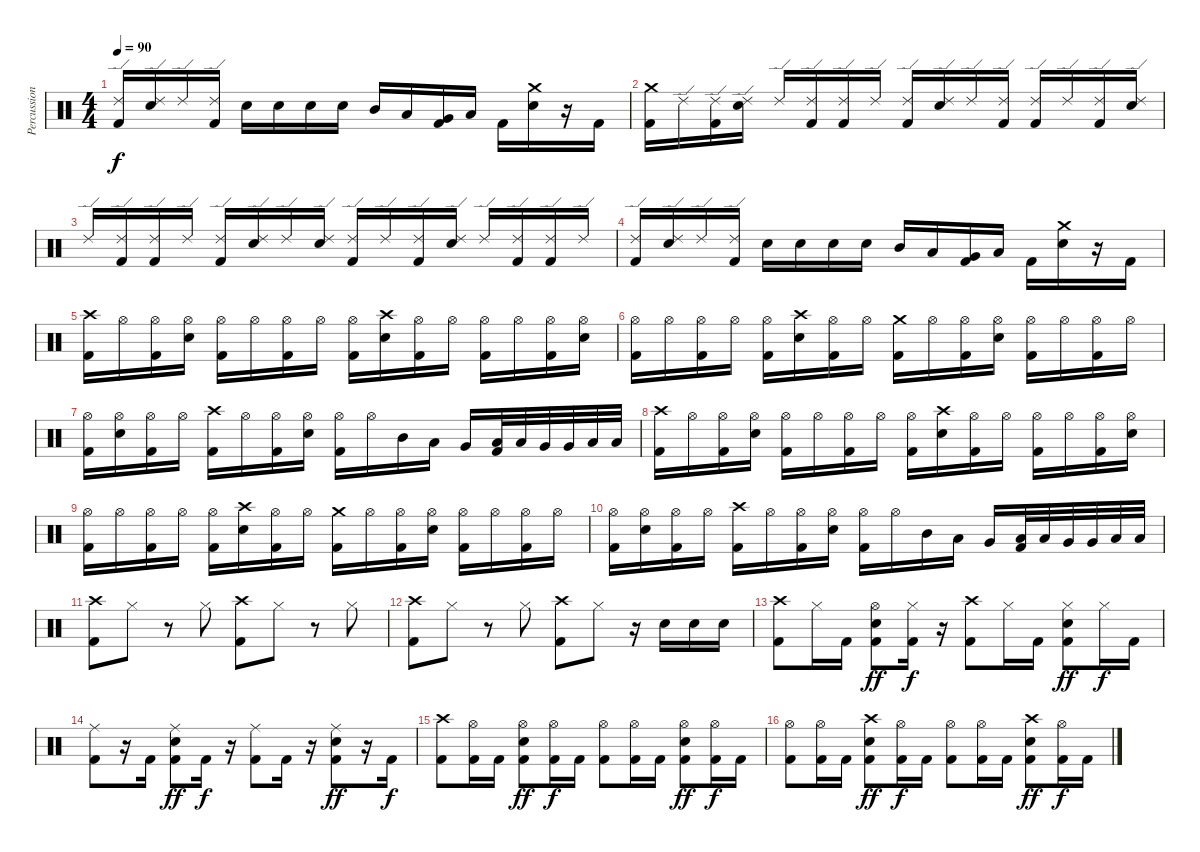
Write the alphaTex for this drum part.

\track ("Percussion" "Percussion") {instrument percussion}
\staff {score}
\articulation defaults
\ts (4 4)
\tempo 90
\clef neutral
\ks c
("Ride (edge) 2" "Kick (hit) 2").16{dy f} ("Ride (edge) 2" "Snare (hit) 2").16 "Ride (edge) 2".16 ("Ride (edge) 2" "Kick (hit) 2").16 "Snare (hit) 2".16 "Snare (hit) 2".16 "Snare (hit) 2".16 "Snare (hit) 2".16 "Mid Tom (hit)".16 "Low Tom (hit)".16 ("Very Low Tom (hit)" "Kick (hit) 2").16 "Low Floor Tom (hit)".16 "Kick (hit) 2".16 ("Crash medium (hit)" "Snare (hit) 2").16 r.16 "Kick (hit) 2".16 |
("Crash medium (hit)" "Kick (hit) 2").16 "Ride (edge) 2".16 ("Ride (edge) 2" "Kick (hit) 2").16 ("Ride (edge) 2" "Snare (hit) 2").16 "Ride (edge) 2".16 ("Ride (edge) 2" "Kick (hit) 2").16 ("Ride (edge) 2" "Kick (hit) 2").16 "Ride (edge) 2".16 ("Ride (edge) 2" "Kick (hit) 2").16 ("Ride (edge) 2" "Snare (hit) 2").16 "Ride (edge) 2".16 ("Ride (edge) 2" "Kick (hit) 2").16 ("Ride (edge) 2" "Kick (hit) 2").16 "Ride (edge) 2".16 ("Ride (edge) 2" "Kick (hit) 2").16 ("Ride (edge) 2" "Snare (hit) 2").16 |
"Ride (edge) 2".16 ("Ride (edge) 2" "Kick (hit) 2").16 ("Ride (edge) 2" "Kick (hit) 2").16 "Ride (edge) 2".16 ("Ride (edge) 2" "Kick (hit) 2").16 ("Ride (edge) 2" "Snare (hit) 2").16 "Ride (edge) 2".16 ("Ride (edge) 2" "Snare (hit) 2").16 ("Ride (edge) 2" "Kick (hit) 2").16 "Ride (edge) 2".16 ("Ride (edge) 2" "Kick (hit) 2").16 ("Ride (edge) 2" "Snare (hit) 2").16 "Ride (edge) 2".16 ("Ride (edge) 2" "Kick (hit) 2").16 ("Ride (edge) 2" "Kick (hit) 2").16 "Ride (edge) 2".16 |
("Ride (edge) 2" "Kick (hit) 2").16 ("Ride (edge) 2" "Snare (hit) 2").16 "Ride (edge) 2".16 ("Ride (edge) 2" "Kick (hit) 2").16 "Snare (hit) 2".16 "Snare (hit) 2".16 "Snare (hit) 2".16 "Snare (hit) 2".16 "Mid Tom (hit)".16 "Low Tom (hit)".16 ("Very Low Tom (hit)" "Kick (hit) 2").16 "Low Floor Tom (hit)".16 "Kick (hit) 2".16 ("Crash medium (hit)" "Snare (hit) 2").16 r.16 "Kick (hit) 2".16 |
("Crash high (hit)" "Kick (hit) 2").16 "Hi-Hat (open)".16 ("Hi-Hat (open)" "Kick (hit) 2").16 ("Snare (hit) 2" "Hi-Hat (open)").16 ("Hi-Hat (open)" "Kick (hit) 2").16 "Hi-Hat (open)".16 ("Hi-Hat (open)" "Kick (hit) 2").16 "Hi-Hat (open)".16 ("Hi-Hat (open)" "Kick (hit) 2").16 ("Crash high (hit)" "Snare (hit) 2").16 ("Hi-Hat (open)" "Kick (hit) 2").16 "Hi-Hat (open)".16 ("Hi-Hat (open)" "Kick (hit) 2").16 "Hi-Hat (open)".16 ("Hi-Hat (open)" "Kick (hit) 2").16 ("Hi-Hat (open)" "Snare (hit) 2").16 |
("Hi-Hat (open)" "Kick (hit) 2").16 "Hi-Hat (open)".16 ("Hi-Hat (open)" "Kick (hit) 2").16 "Hi-Hat (open)".16 ("Hi-Hat (open)" "Kick (hit) 2").16 ("Crash high (hit)" "Snare (hit) 2").16 ("Hi-Hat (open)" "Kick (hit) 2").16 "Hi-Hat (open)".16 ("Crash medium (hit)" "Kick (hit) 2").16 "Hi-Hat (open)".16 ("Hi-Hat (open)" "Kick (hit) 2").16 ("Hi-Hat (open)" "Snare (hit) 2").16 ("Hi-Hat (open)" "Kick (hit) 2").16 "Hi-Hat (open)".16 ("Hi-Hat (open)" "Kick (hit) 2").16 "Hi-Hat (open)".16 |
("Hi-Hat (open)" "Kick (hit) 2").16 ("Hi-Hat (open)" "Snare (hit) 2").16 ("Hi-Hat (open)" "Kick (hit) 2").16 "Hi-Hat (open)".16 ("Crash high (hit)" "Kick (hit) 2").16 "Hi-Hat (open)".16 ("Hi-Hat (open)" "Kick (hit) 2").16 ("Hi-Hat (open)" "Snare (hit) 2").16 ("Hi-Hat (open)" "Kick (hit) 2").16 "Hi-Hat (open)".16 "Mid Tom (hit)".16 "Low Tom (hit)".16 "Very Low Tom (hit)".16 ("Low Tom (hit)" "Kick (hit) 2").32 "Low Tom (hit)".32 "Very Low Tom (hit)".32 "Very Low Tom (hit)".32 "Low Floor Tom (hit)".32 "Low Floor Tom (hit)".32 |
("Crash high (hit)" "Kick (hit) 2").16 "Hi-Hat (open)".16 ("Hi-Hat (open)" "Kick (hit) 2").16 ("Snare (hit) 2" "Hi-Hat (open)").16 ("Hi-Hat (open)" "Kick (hit) 2").16 "Hi-Hat (open)".16 ("Hi-Hat (open)" "Kick (hit) 2").16 "Hi-Hat (open)".16 ("Hi-Hat (open)" "Kick (hit) 2").16 ("Crash high (hit)" "Snare (hit) 2").16 ("Hi-Hat (open)" "Kick (hit) 2").16 "Hi-Hat (open)".16 ("Hi-Hat (open)" "Kick (hit) 2").16 "Hi-Hat (open)".16 ("Hi-Hat (open)" "Kick (hit) 2").16 ("Hi-Hat (open)" "Snare (hit) 2").16 |
("Hi-Hat (open)" "Kick (hit) 2").16 "Hi-Hat (open)".16 ("Hi-Hat (open)" "Kick (hit) 2").16 "Hi-Hat (open)".16 ("Hi-Hat (open)" "Kick (hit) 2").16 ("Crash high (hit)" "Snare (hit) 2").16 ("Hi-Hat (open)" "Kick (hit) 2").16 "Hi-Hat (open)".16 ("Crash medium (hit)" "Kick (hit) 2").16 "Hi-Hat (open)".16 ("Hi-Hat (open)" "Kick (hit) 2").16 ("Hi-Hat (open)" "Snare (hit) 2").16 ("Hi-Hat (open)" "Kick (hit) 2").16 "Hi-Hat (open)".16 ("Hi-Hat (open)" "Kick (hit) 2").16 "Hi-Hat (open)".16 |
("Hi-Hat (open)" "Kick (hit) 2").16 ("Hi-Hat (open)" "Snare (hit) 2").16 ("Hi-Hat (open)" "Kick (hit) 2").16 "Hi-Hat (open)".16 ("Crash high (hit)" "Kick (hit) 2").16 "Hi-Hat (open)".16 ("Hi-Hat (open)" "Kick (hit) 2").16 ("Hi-Hat (open)" "Snare (hit) 2").16 ("Hi-Hat (open)" "Kick (hit) 2").16 "Hi-Hat (open)".16 "Mid Tom (hit)".16 "Low Tom (hit)".16 "Very Low Tom (hit)".16 ("Low Tom (hit)" "Kick (hit) 2").32 "Low Tom (hit)".32 "Very Low Tom (hit)".32 "Very Low Tom (hit)".32 "Low Floor Tom (hit)".32 "Low Floor Tom (hit)".32 |
("Crash high (hit)" "Kick (hit) 2").8 "Hi-Hat (closed)".8 r.8 "Hi-Hat (closed)".8 ("Crash high (hit)" "Kick (hit) 2").8 "Hi-Hat (closed)".8 r.8 "Hi-Hat (closed)".8 |
("Crash high (hit)" "Kick (hit) 2").8 "Hi-Hat (closed)".8 r.8 "Hi-Hat (closed)".8 ("Crash high (hit)" "Kick (hit) 2").8 "Hi-Hat (closed)".8 r.16 "Snare (hit) 2".16 "Snare (hit) 2".16 "Snare (hit) 2".16 |
("Crash high (hit)" "Kick (hit) 2").8 "Hi-Hat (closed)".16 "Kick (hit) 2".16 ("Hi-Hat (open)" "Snare (hit) 2" "Kick (hit) 2").8{dy ff} ("Hi-Hat (closed)" "Kick (hit) 2").16{dy f} r.16 ("Crash high (hit)" "Kick (hit) 2").8 "Hi-Hat (closed)".16 "Kick (hit) 2".16 ("Hi-Hat (closed)" "Snare (hit) 2" "Kick (hit) 2").8{dy ff} "Hi-Hat (closed)".16{dy f} "Kick (hit) 2".16 |
("Ride (middle)" "Kick (hit) 2").8 r.16 "Kick (hit) 2".16 ("Ride (middle)" "Snare (hit) 2" "Kick (hit) 2").8{dy ff} "Kick (hit) 2".16{dy f} r.16 ("Ride (middle)" "Kick (hit) 2").8 "Kick (hit) 2".16 r.16 ("Ride (middle)" "Snare (hit) 2" "Kick (hit) 2").8{dy ff} r.16 "Kick (hit) 2".16{dy f} |
("Crash high (hit)" "Kick (hit) 2").8 ("Hi-Hat (open)" "Kick (hit) 2").16 "Kick (hit) 2".16 ("Hi-Hat (open)" "Snare (hit) 2" "Kick (hit) 2").8{dy ff} ("Hi-Hat (open)" "Kick (hit) 2").16{dy f} "Kick (hit) 2".16 ("Hi-Hat (open)" "Kick (hit) 2").8 ("Hi-Hat (open)" "Kick (hit) 2").16 "Kick (hit) 2".16 ("Hi-Hat (open)" "Snare (hit) 2" "Kick (hit) 2").8{dy ff} ("Hi-Hat (open)" "Kick (hit) 2").16{dy f} "Kick (hit) 2".16 |
("Hi-Hat (open)" "Kick (hit) 2").8 ("Hi-Hat (open)" "Kick (hit) 2").16 "Kick (hit) 2".16 ("Crash high (hit)" "Snare (hit) 2" "Kick (hit) 2").8{dy ff} ("Hi-Hat (open)" "Kick (hit) 2").16{dy f} "Kick (hit) 2".16 ("Hi-Hat (open)" "Kick (hit) 2").8 ("Hi-Hat (open)" "Kick (hit) 2").16 "Kick (hit) 2".16 ("Crash high (hit)" "Snare (hit) 2" "Kick (hit) 2").8{dy ff} ("Hi-Hat (open)" "Kick (hit) 2").16{dy f} "Kick (hit) 2".16
